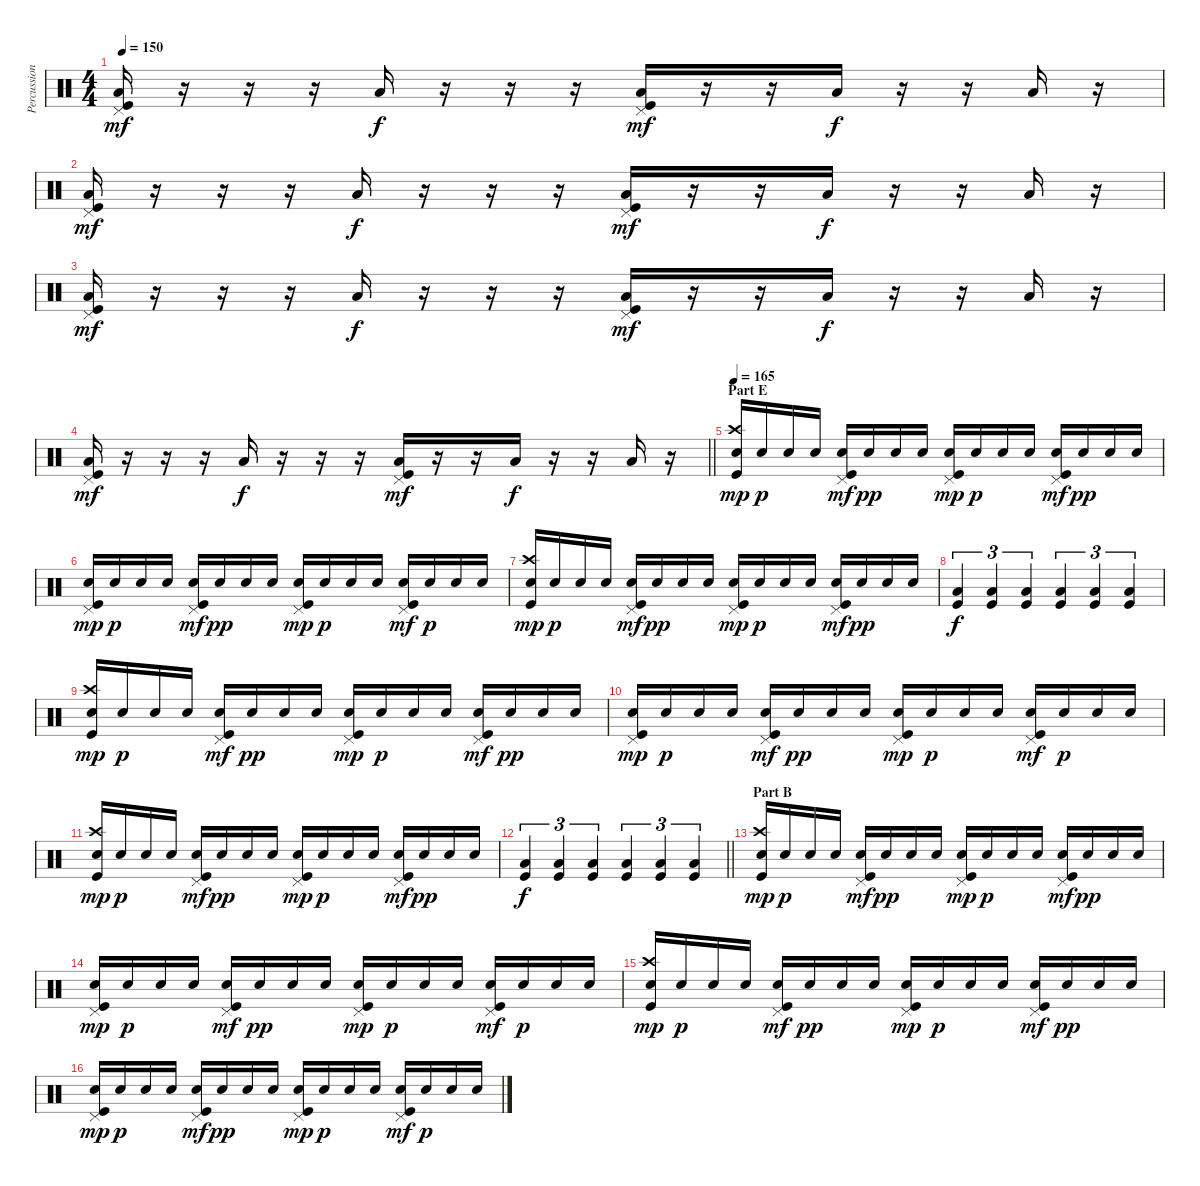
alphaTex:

\track ("Percussion" "Percussion") {instrument percussion}
\staff {score}
\articulation defaults
\ts (4 4)
\tempo 150
\clef neutral
\ks c
("Pedal Hi-Hat (hit)" "Low Floor Tom (hit)" "Kick (hit)").16{dy mf} r.16 r.16 r.16 "Low Floor Tom (hit)".16{dy f} r.16 r.16 r.16 ("Pedal Hi-Hat (hit)" "Low Floor Tom (hit)" "Kick (hit)").16{dy mf} r.16 r.16 "Low Floor Tom (hit)".16{dy f} r.16 r.16 "Low Floor Tom (hit)".16 r.16 |
("Pedal Hi-Hat (hit)" "Low Floor Tom (hit)" "Kick (hit)").16{dy mf} r.16 r.16 r.16 "Low Floor Tom (hit)".16{dy f} r.16 r.16 r.16 ("Pedal Hi-Hat (hit)" "Low Floor Tom (hit)" "Kick (hit)").16{dy mf} r.16 r.16 "Low Floor Tom (hit)".16{dy f} r.16 r.16 "Low Floor Tom (hit)".16 r.16 |
("Pedal Hi-Hat (hit)" "Low Floor Tom (hit)" "Kick (hit)").16{dy mf} r.16 r.16 r.16 "Low Floor Tom (hit)".16{dy f} r.16 r.16 r.16 ("Pedal Hi-Hat (hit)" "Low Floor Tom (hit)" "Kick (hit)").16{dy mf} r.16 r.16 "Low Floor Tom (hit)".16{dy f} r.16 r.16 "Low Floor Tom (hit)".16 r.16 |
\barLineRight lightlight
("Pedal Hi-Hat (hit)" "Low Floor Tom (hit)" "Kick (hit)").16{dy mf} r.16 r.16 r.16 "Low Floor Tom (hit)".16{dy f} r.16 r.16 r.16 ("Pedal Hi-Hat (hit)" "Low Floor Tom (hit)" "Kick (hit)").16{dy mf} r.16 r.16 "Low Floor Tom (hit)".16{dy f} r.16 r.16 "Low Floor Tom (hit)".16 r.16 |
\section ("" "Part E")
\tempo 165
("Crash high (hit)" "Electric Snare (hit)" "Kick (hit)").16{dy mp} "Electric Snare (hit)".16{dy p} "Electric Snare (hit)".16 "Electric Snare (hit)".16 ("Pedal Hi-Hat (hit)" "Electric Snare (hit)" "Kick (hit)").16{dy mf} "Electric Snare (hit)".16{dy pp} "Electric Snare (hit)".16 "Electric Snare (hit)".16 ("Pedal Hi-Hat (hit)" "Electric Snare (hit)" "Kick (hit)").16{dy mp} "Electric Snare (hit)".16{dy p} "Electric Snare (hit)".16 "Electric Snare (hit)".16 ("Pedal Hi-Hat (hit)" "Electric Snare (hit)" "Kick (hit)").16{dy mf} "Electric Snare (hit)".16{dy pp} "Electric Snare (hit)".16 "Electric Snare (hit)".16 |
("Pedal Hi-Hat (hit)" "Electric Snare (hit)" "Kick (hit)").16{dy mp} "Electric Snare (hit)".16{dy p} "Electric Snare (hit)".16 "Electric Snare (hit)".16 ("Pedal Hi-Hat (hit)" "Electric Snare (hit)" "Kick (hit)").16{dy mf} "Electric Snare (hit)".16{dy pp} "Electric Snare (hit)".16 "Electric Snare (hit)".16 ("Pedal Hi-Hat (hit)" "Electric Snare (hit)" "Kick (hit)").16{dy mp} "Electric Snare (hit)".16{dy p} "Electric Snare (hit)".16 "Electric Snare (hit)".16 ("Pedal Hi-Hat (hit)" "Electric Snare (hit)" "Kick (hit)").16{dy mf} "Electric Snare (hit)".16{dy p} "Electric Snare (hit)".16 "Electric Snare (hit)".16 |
("Crash high (hit)" "Electric Snare (hit)" "Kick (hit)").16{dy mp} "Electric Snare (hit)".16{dy p} "Electric Snare (hit)".16 "Electric Snare (hit)".16 ("Pedal Hi-Hat (hit)" "Electric Snare (hit)" "Kick (hit)").16{dy mf} "Electric Snare (hit)".16{dy pp} "Electric Snare (hit)".16 "Electric Snare (hit)".16 ("Pedal Hi-Hat (hit)" "Electric Snare (hit)" "Kick (hit)").16{dy mp} "Electric Snare (hit)".16{dy p} "Electric Snare (hit)".16 "Electric Snare (hit)".16 ("Pedal Hi-Hat (hit)" "Electric Snare (hit)" "Kick (hit)").16{dy mf} "Electric Snare (hit)".16{dy pp} "Electric Snare (hit)".16 "Electric Snare (hit)".16 |
("Low Floor Tom (hit)" "Kick (hit)").4{tu (3 2) dy f} ("Low Floor Tom (hit)" "Kick (hit)").4{tu (3 2)} ("Low Floor Tom (hit)" "Kick (hit)").4{tu (3 2)} ("Low Floor Tom (hit)" "Kick (hit)").4{tu (3 2)} ("Low Floor Tom (hit)" "Kick (hit)").4{tu (3 2)} ("Low Floor Tom (hit)" "Kick (hit)").4{tu (3 2)} |
("Crash high (hit)" "Electric Snare (hit)" "Kick (hit)").16{dy mp} "Electric Snare (hit)".16{dy p} "Electric Snare (hit)".16 "Electric Snare (hit)".16 ("Pedal Hi-Hat (hit)" "Electric Snare (hit)" "Kick (hit)").16{dy mf} "Electric Snare (hit)".16{dy pp} "Electric Snare (hit)".16 "Electric Snare (hit)".16 ("Pedal Hi-Hat (hit)" "Electric Snare (hit)" "Kick (hit)").16{dy mp} "Electric Snare (hit)".16{dy p} "Electric Snare (hit)".16 "Electric Snare (hit)".16 ("Pedal Hi-Hat (hit)" "Electric Snare (hit)" "Kick (hit)").16{dy mf} "Electric Snare (hit)".16{dy pp} "Electric Snare (hit)".16 "Electric Snare (hit)".16 |
("Pedal Hi-Hat (hit)" "Electric Snare (hit)" "Kick (hit)").16{dy mp} "Electric Snare (hit)".16{dy p} "Electric Snare (hit)".16 "Electric Snare (hit)".16 ("Pedal Hi-Hat (hit)" "Electric Snare (hit)" "Kick (hit)").16{dy mf} "Electric Snare (hit)".16{dy pp} "Electric Snare (hit)".16 "Electric Snare (hit)".16 ("Pedal Hi-Hat (hit)" "Electric Snare (hit)" "Kick (hit)").16{dy mp} "Electric Snare (hit)".16{dy p} "Electric Snare (hit)".16 "Electric Snare (hit)".16 ("Pedal Hi-Hat (hit)" "Electric Snare (hit)" "Kick (hit)").16{dy mf} "Electric Snare (hit)".16{dy p} "Electric Snare (hit)".16 "Electric Snare (hit)".16 |
("Crash high (hit)" "Electric Snare (hit)" "Kick (hit)").16{dy mp} "Electric Snare (hit)".16{dy p} "Electric Snare (hit)".16 "Electric Snare (hit)".16 ("Pedal Hi-Hat (hit)" "Electric Snare (hit)" "Kick (hit)").16{dy mf} "Electric Snare (hit)".16{dy pp} "Electric Snare (hit)".16 "Electric Snare (hit)".16 ("Pedal Hi-Hat (hit)" "Electric Snare (hit)" "Kick (hit)").16{dy mp} "Electric Snare (hit)".16{dy p} "Electric Snare (hit)".16 "Electric Snare (hit)".16 ("Pedal Hi-Hat (hit)" "Electric Snare (hit)" "Kick (hit)").16{dy mf} "Electric Snare (hit)".16{dy pp} "Electric Snare (hit)".16 "Electric Snare (hit)".16 |
\barLineRight lightlight
("Low Floor Tom (hit)" "Kick (hit)").4{tu (3 2) dy f} ("Low Floor Tom (hit)" "Kick (hit)").4{tu (3 2)} ("Low Floor Tom (hit)" "Kick (hit)").4{tu (3 2)} ("Low Floor Tom (hit)" "Kick (hit)").4{tu (3 2)} ("Low Floor Tom (hit)" "Kick (hit)").4{tu (3 2)} ("Low Floor Tom (hit)" "Kick (hit)").4{tu (3 2)} |
\section ("" "Part B")
("Crash high (hit)" "Electric Snare (hit)" "Kick (hit)").16{dy mp} "Electric Snare (hit)".16{dy p} "Electric Snare (hit)".16 "Electric Snare (hit)".16 ("Pedal Hi-Hat (hit)" "Electric Snare (hit)" "Kick (hit)").16{dy mf} "Electric Snare (hit)".16{dy pp} "Electric Snare (hit)".16 "Electric Snare (hit)".16 ("Pedal Hi-Hat (hit)" "Electric Snare (hit)" "Kick (hit)").16{dy mp} "Electric Snare (hit)".16{dy p} "Electric Snare (hit)".16 "Electric Snare (hit)".16 ("Pedal Hi-Hat (hit)" "Electric Snare (hit)" "Kick (hit)").16{dy mf} "Electric Snare (hit)".16{dy pp} "Electric Snare (hit)".16 "Electric Snare (hit)".16 |
("Pedal Hi-Hat (hit)" "Electric Snare (hit)" "Kick (hit)").16{dy mp} "Electric Snare (hit)".16{dy p} "Electric Snare (hit)".16 "Electric Snare (hit)".16 ("Pedal Hi-Hat (hit)" "Electric Snare (hit)" "Kick (hit)").16{dy mf} "Electric Snare (hit)".16{dy pp} "Electric Snare (hit)".16 "Electric Snare (hit)".16 ("Pedal Hi-Hat (hit)" "Electric Snare (hit)" "Kick (hit)").16{dy mp} "Electric Snare (hit)".16{dy p} "Electric Snare (hit)".16 "Electric Snare (hit)".16 ("Pedal Hi-Hat (hit)" "Electric Snare (hit)" "Kick (hit)").16{dy mf} "Electric Snare (hit)".16{dy p} "Electric Snare (hit)".16 "Electric Snare (hit)".16 |
("Crash high (hit)" "Electric Snare (hit)" "Kick (hit)").16{dy mp} "Electric Snare (hit)".16{dy p} "Electric Snare (hit)".16 "Electric Snare (hit)".16 ("Pedal Hi-Hat (hit)" "Electric Snare (hit)" "Kick (hit)").16{dy mf} "Electric Snare (hit)".16{dy pp} "Electric Snare (hit)".16 "Electric Snare (hit)".16 ("Pedal Hi-Hat (hit)" "Electric Snare (hit)" "Kick (hit)").16{dy mp} "Electric Snare (hit)".16{dy p} "Electric Snare (hit)".16 "Electric Snare (hit)".16 ("Pedal Hi-Hat (hit)" "Electric Snare (hit)" "Kick (hit)").16{dy mf} "Electric Snare (hit)".16{dy pp} "Electric Snare (hit)".16 "Electric Snare (hit)".16 |
("Pedal Hi-Hat (hit)" "Electric Snare (hit)" "Kick (hit)").16{dy mp} "Electric Snare (hit)".16{dy p} "Electric Snare (hit)".16 "Electric Snare (hit)".16 ("Pedal Hi-Hat (hit)" "Electric Snare (hit)" "Kick (hit)").16{dy mf} "Electric Snare (hit)".16{dy pp} "Electric Snare (hit)".16 "Electric Snare (hit)".16 ("Pedal Hi-Hat (hit)" "Electric Snare (hit)" "Kick (hit)").16{dy mp} "Electric Snare (hit)".16{dy p} "Electric Snare (hit)".16 "Electric Snare (hit)".16 ("Pedal Hi-Hat (hit)" "Electric Snare (hit)" "Kick (hit)").16{dy mf} "Electric Snare (hit)".16{dy p} "Electric Snare (hit)".16 "Electric Snare (hit)".16
